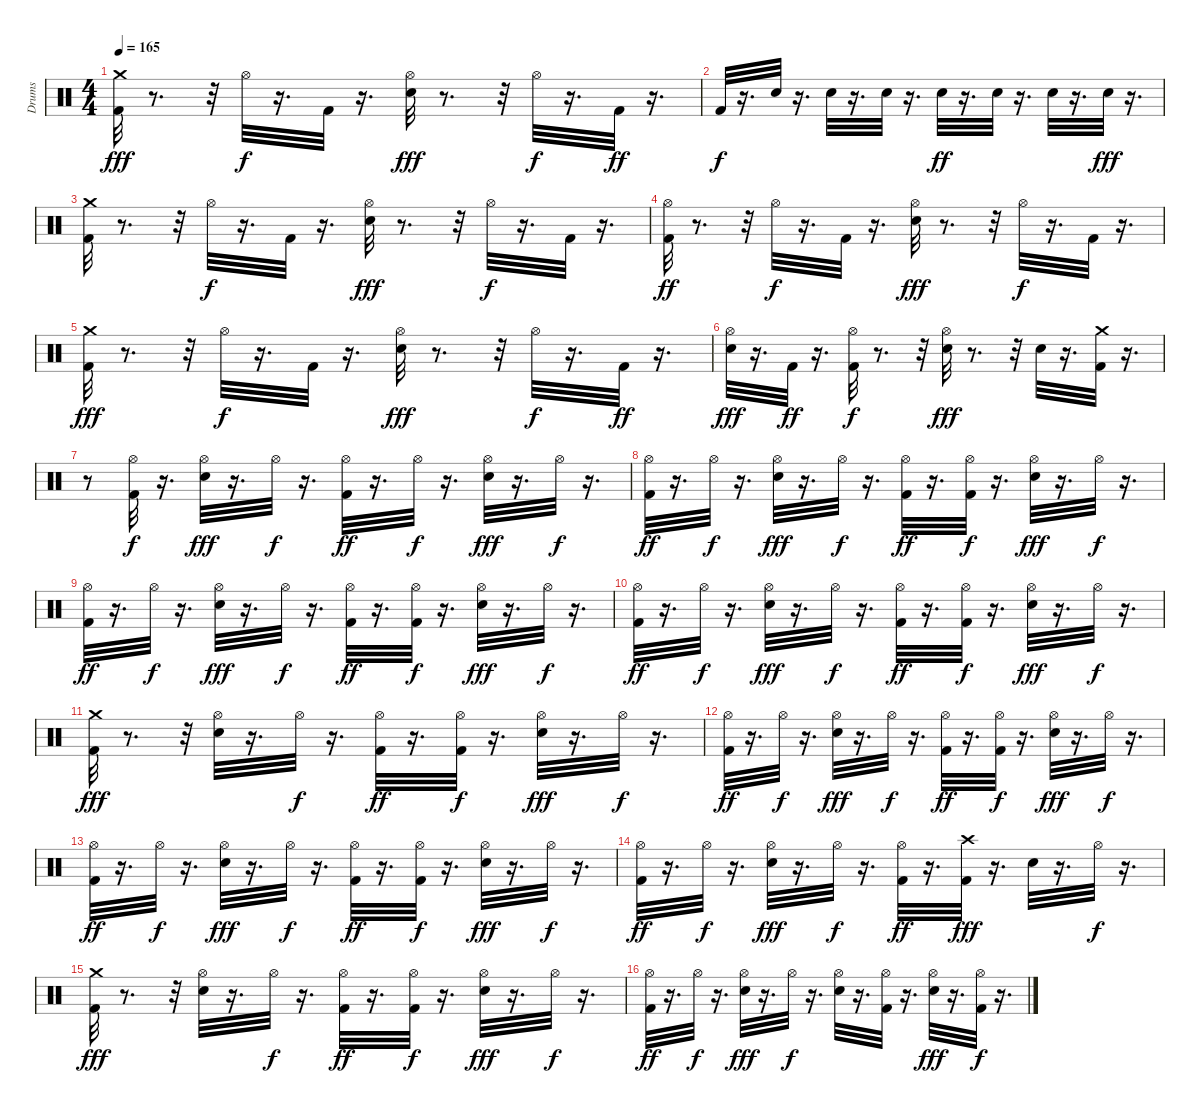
\track ("Drums" "Drums") {instrument percussion}
\staff {score}
\articulation defaults
\ts (4 4)
\tempo 165
\clef neutral
\ks c
("Kick (hit) 2" "Crash medium (hit)").32{dy fff} r.8{d} r.32 "Hi-Hat (open)".32{dy f} r.16{d} "Kick (hit) 2".32 r.16{d} ("Hi-Hat (open)" "Snare (hit) 2").32{dy fff} r.8{d} r.32 "Hi-Hat (open)".32{dy f} r.16{d} "Kick (hit) 2".32{dy ff} r.16{d} |
"Kick (hit) 2".32{dy f} r.16{d} "Snare (hit) 2".32 r.16{d} "Snare (hit) 2".32 r.16{d} "Snare (hit) 2".32 r.16{d} "Snare (hit) 2".32{dy ff} r.16{d} "Snare (hit) 2".32 r.16{d} "Snare (hit) 2".32 r.16{d} "Snare (hit) 2".32{dy fff} r.16{d} |
("Kick (hit) 2" "Crash medium (hit)").32 r.8{d} r.32 "Hi-Hat (open)".32{dy f} r.16{d} "Kick (hit) 2".32 r.16{d} ("Hi-Hat (open)" "Snare (hit) 2").32{dy fff} r.8{d} r.32 "Hi-Hat (open)".32{dy f} r.16{d} "Kick (hit) 2".32 r.16{d} |
("Hi-Hat (open)" "Kick (hit) 2").32{dy ff} r.8{d} r.32 "Hi-Hat (open)".32{dy f} r.16{d} "Kick (hit) 2".32 r.16{d} ("Hi-Hat (open)" "Snare (hit) 2").32{dy fff} r.8{d} r.32 "Hi-Hat (open)".32{dy f} r.16{d} "Kick (hit) 2".32 r.16{d} |
("Kick (hit) 2" "Crash medium (hit)").32{dy fff} r.8{d} r.32 "Hi-Hat (open)".32{dy f} r.16{d} "Kick (hit) 2".32 r.16{d} ("Hi-Hat (open)" "Snare (hit) 2").32{dy fff} r.8{d} r.32 "Hi-Hat (open)".32{dy f} r.16{d} "Kick (hit) 2".32{dy ff} r.16{d} |
("Hi-Hat (open)" "Snare (hit) 2").32{dy fff} r.16{d} "Kick (hit) 2".32{dy ff} r.16{d} ("Hi-Hat (open)" "Kick (hit) 2").32{dy f} r.8{d} r.32 ("Hi-Hat (open)" "Snare (hit) 2").32{dy fff} r.8{d} r.32 "Snare (hit) 2".32 r.16{d} ("Kick (hit) 2" "Crash medium (hit)").32 r.16{d} |
r.8 ("Kick (hit) 2" "Hi-Hat (open)").32{dy f} r.16{d} ("Snare (hit) 2" "Hi-Hat (open)").32{dy fff} r.16{d} "Hi-Hat (open)".32{dy f} r.16{d} ("Kick (hit) 2" "Hi-Hat (open)").32{dy ff} r.16{d} "Hi-Hat (open)".32{dy f} r.16{d} ("Snare (hit) 2" "Hi-Hat (open)").32{dy fff} r.16{d} "Hi-Hat (open)".32{dy f} r.16{d} |
("Kick (hit) 2" "Hi-Hat (open)").32{dy ff} r.16{d} "Hi-Hat (open)".32{dy f} r.16{d} ("Snare (hit) 2" "Hi-Hat (open)").32{dy fff} r.16{d} "Hi-Hat (open)".32{dy f} r.16{d} ("Kick (hit) 2" "Hi-Hat (open)").32{dy ff} r.16{d} ("Kick (hit) 2" "Hi-Hat (open)").32{dy f} r.16{d} ("Snare (hit) 2" "Hi-Hat (open)").32{dy fff} r.16{d} "Hi-Hat (open)".32{dy f} r.16{d} |
("Kick (hit) 2" "Hi-Hat (open)").32{dy ff} r.16{d} "Hi-Hat (open)".32{dy f} r.16{d} ("Snare (hit) 2" "Hi-Hat (open)").32{dy fff} r.16{d} "Hi-Hat (open)".32{dy f} r.16{d} ("Kick (hit) 2" "Hi-Hat (open)").32{dy ff} r.16{d} ("Kick (hit) 2" "Hi-Hat (open)").32{dy f} r.16{d} ("Snare (hit) 2" "Hi-Hat (open)").32{dy fff} r.16{d} "Hi-Hat (open)".32{dy f} r.16{d} |
("Kick (hit) 2" "Hi-Hat (open)").32{dy ff} r.16{d} "Hi-Hat (open)".32{dy f} r.16{d} ("Snare (hit) 2" "Hi-Hat (open)").32{dy fff} r.16{d} "Hi-Hat (open)".32{dy f} r.16{d} ("Kick (hit) 2" "Hi-Hat (open)").32{dy ff} r.16{d} ("Kick (hit) 2" "Hi-Hat (open)").32{dy f} r.16{d} ("Snare (hit) 2" "Hi-Hat (open)").32{dy fff} r.16{d} "Hi-Hat (open)".32{dy f} r.16{d} |
("Kick (hit) 2" "Crash medium (hit)").32{dy fff} r.8{d} r.32 ("Snare (hit) 2" "Hi-Hat (open)").32 r.16{d} "Hi-Hat (open)".32{dy f} r.16{d} ("Kick (hit) 2" "Hi-Hat (open)").32{dy ff} r.16{d} ("Kick (hit) 2" "Hi-Hat (open)").32{dy f} r.16{d} ("Snare (hit) 2" "Hi-Hat (open)").32{dy fff} r.16{d} "Hi-Hat (open)".32{dy f} r.16{d} |
("Kick (hit) 2" "Hi-Hat (open)").32{dy ff} r.16{d} "Hi-Hat (open)".32{dy f} r.16{d} ("Snare (hit) 2" "Hi-Hat (open)").32{dy fff} r.16{d} "Hi-Hat (open)".32{dy f} r.16{d} ("Kick (hit) 2" "Hi-Hat (open)").32{dy ff} r.16{d} ("Kick (hit) 2" "Hi-Hat (open)").32{dy f} r.16{d} ("Snare (hit) 2" "Hi-Hat (open)").32{dy fff} r.16{d} "Hi-Hat (open)".32{dy f} r.16{d} |
("Kick (hit) 2" "Hi-Hat (open)").32{dy ff} r.16{d} "Hi-Hat (open)".32{dy f} r.16{d} ("Snare (hit) 2" "Hi-Hat (open)").32{dy fff} r.16{d} "Hi-Hat (open)".32{dy f} r.16{d} ("Kick (hit) 2" "Hi-Hat (open)").32{dy ff} r.16{d} ("Kick (hit) 2" "Hi-Hat (open)").32{dy f} r.16{d} ("Snare (hit) 2" "Hi-Hat (open)").32{dy fff} r.16{d} "Hi-Hat (open)".32{dy f} r.16{d} |
("Kick (hit) 2" "Hi-Hat (open)").32{dy ff} r.16{d} "Hi-Hat (open)".32{dy f} r.16{d} ("Snare (hit) 2" "Hi-Hat (open)").32{dy fff} r.16{d} "Hi-Hat (open)".32{dy f} r.16{d} ("Kick (hit) 2" "Hi-Hat (open)").32{dy ff} r.16{d} ("Crash high (hit)" "Kick (hit) 2").32{dy fff} r.16{d} "Snare (hit) 2".32 r.16{d} "Hi-Hat (open)".32{dy f} r.16{d} |
("Kick (hit) 2" "Crash medium (hit)").32{dy fff} r.8{d} r.32 ("Snare (hit) 2" "Hi-Hat (open)").32 r.16{d} "Hi-Hat (open)".32{dy f} r.16{d} ("Kick (hit) 2" "Hi-Hat (open)").32{dy ff} r.16{d} ("Kick (hit) 2" "Hi-Hat (open)").32{dy f} r.16{d} ("Snare (hit) 2" "Hi-Hat (open)").32{dy fff} r.16{d} "Hi-Hat (open)".32{dy f} r.16{d} |
("Kick (hit) 2" "Hi-Hat (open)").32{dy ff} r.16{d} "Hi-Hat (open)".32{dy f} r.16{d} ("Snare (hit) 2" "Hi-Hat (open)").32{dy fff} r.16{d} "Hi-Hat (open)".32{dy f} r.16{d} ("Snare (hit) 2" "Hi-Hat (open)").32 r.16{d} ("Kick (hit) 2" "Hi-Hat (open)").32 r.16{d} ("Snare (hit) 2" "Hi-Hat (open)").32{dy fff} r.16{d} ("Kick (hit) 2" "Hi-Hat (open)").32{dy f} r.16{d}
